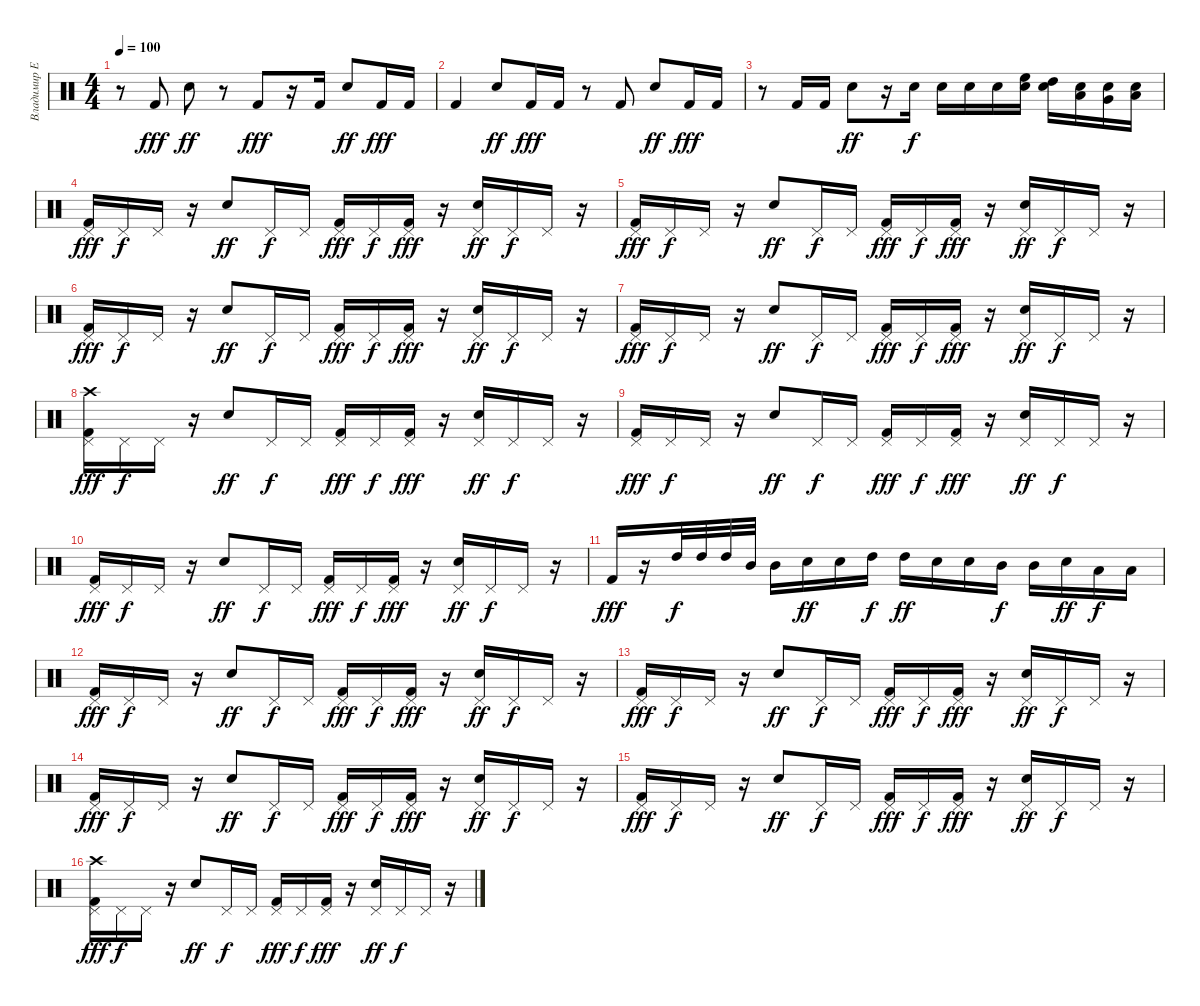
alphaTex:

\track ("Владимир Ермаков" "Владимир Е") {instrument percussion}
\staff {score}
\articulation defaults
\ts (4 4)
\tempo 100
\clef neutral
\ks c
r.8{dy ff} "Kick (hit) 2".8{dy fff} "Electric Snare (hit)".8{dy ff} r.8 "Kick (hit) 2".8{dy fff} r.16 "Kick (hit) 2".16 "Electric Snare (hit)".8{dy ff} "Kick (hit) 2".16{dy fff} "Kick (hit) 2".16 |
"Kick (hit) 2".4 "Electric Snare (hit)".8{dy ff} "Kick (hit) 2".16{dy fff} "Kick (hit) 2".16 r.8 "Kick (hit) 2".8 "Electric Snare (hit)".8{dy ff} "Kick (hit) 2".16{dy fff} "Kick (hit) 2".16 |
r.8 "Kick (hit) 2".16 "Kick (hit) 2".16 "Electric Snare (hit)".8{dy ff} r.16 "Electric Snare (hit)".16{dy f} "Electric Snare (hit)".16 "Electric Snare (hit)".16 "Electric Snare (hit)".16 ("High Floor Tom (hit)" "Electric Snare (hit)").16 ("High Tom (hit)" "Electric Snare (hit)").16 ("Low Tom (hit)" "Electric Snare (hit)").16 ("Very Low Tom (hit)" "Electric Snare (hit)").16 ("Low Floor Tom (hit)" "Electric Snare (hit)").16 |
("Kick (hit) 2" "Pedal Hi-Hat (hit)").16{dy fff} "Pedal Hi-Hat (hit)".16{dy f} "Pedal Hi-Hat (hit)".16 r.16 "Electric Snare (hit)".8{dy ff} "Pedal Hi-Hat (hit)".16{dy f} "Pedal Hi-Hat (hit)".16 ("Kick (hit) 2" "Pedal Hi-Hat (hit)").16{dy fff} "Pedal Hi-Hat (hit)".16{dy f} ("Kick (hit) 2" "Pedal Hi-Hat (hit)").16{dy fff} r.16 ("Electric Snare (hit)" "Pedal Hi-Hat (hit)").16{dy ff} "Pedal Hi-Hat (hit)".16{dy f} "Pedal Hi-Hat (hit)".16 r.16 |
("Kick (hit) 2" "Pedal Hi-Hat (hit)").16{dy fff} "Pedal Hi-Hat (hit)".16{dy f} "Pedal Hi-Hat (hit)".16 r.16 "Electric Snare (hit)".8{dy ff} "Pedal Hi-Hat (hit)".16{dy f} "Pedal Hi-Hat (hit)".16 ("Kick (hit) 2" "Pedal Hi-Hat (hit)").16{dy fff} "Pedal Hi-Hat (hit)".16{dy f} ("Kick (hit) 2" "Pedal Hi-Hat (hit)").16{dy fff} r.16 ("Electric Snare (hit)" "Pedal Hi-Hat (hit)").16{dy ff} "Pedal Hi-Hat (hit)".16{dy f} "Pedal Hi-Hat (hit)".16 r.16 |
("Kick (hit) 2" "Pedal Hi-Hat (hit)").16{dy fff} "Pedal Hi-Hat (hit)".16{dy f} "Pedal Hi-Hat (hit)".16 r.16 "Electric Snare (hit)".8{dy ff} "Pedal Hi-Hat (hit)".16{dy f} "Pedal Hi-Hat (hit)".16 ("Kick (hit) 2" "Pedal Hi-Hat (hit)").16{dy fff} "Pedal Hi-Hat (hit)".16{dy f} ("Kick (hit) 2" "Pedal Hi-Hat (hit)").16{dy fff} r.16 ("Electric Snare (hit)" "Pedal Hi-Hat (hit)").16{dy ff} "Pedal Hi-Hat (hit)".16{dy f} "Pedal Hi-Hat (hit)".16 r.16 |
("Kick (hit) 2" "Pedal Hi-Hat (hit)").16{dy fff} "Pedal Hi-Hat (hit)".16{dy f} "Pedal Hi-Hat (hit)".16 r.16 "Electric Snare (hit)".8{dy ff} "Pedal Hi-Hat (hit)".16{dy f} "Pedal Hi-Hat (hit)".16 ("Kick (hit) 2" "Pedal Hi-Hat (hit)").16{dy fff} "Pedal Hi-Hat (hit)".16{dy f} ("Kick (hit) 2" "Pedal Hi-Hat (hit)").16{dy fff} r.16 ("Electric Snare (hit)" "Pedal Hi-Hat (hit)").16{dy ff} "Pedal Hi-Hat (hit)".16{dy f} "Pedal Hi-Hat (hit)".16 r.16 |
("Crash high (hit)" "Kick (hit) 2" "Pedal Hi-Hat (hit)").16{dy fff} "Pedal Hi-Hat (hit)".16{dy f} "Pedal Hi-Hat (hit)".16 r.16 "Electric Snare (hit)".8{dy ff} "Pedal Hi-Hat (hit)".16{dy f} "Pedal Hi-Hat (hit)".16 ("Kick (hit) 2" "Pedal Hi-Hat (hit)").16{dy fff} "Pedal Hi-Hat (hit)".16{dy f} ("Kick (hit) 2" "Pedal Hi-Hat (hit)").16{dy fff} r.16 ("Electric Snare (hit)" "Pedal Hi-Hat (hit)").16{dy ff} "Pedal Hi-Hat (hit)".16{dy f} "Pedal Hi-Hat (hit)".16 r.16 |
("Kick (hit) 2" "Pedal Hi-Hat (hit)").16{dy fff} "Pedal Hi-Hat (hit)".16{dy f} "Pedal Hi-Hat (hit)".16 r.16 "Electric Snare (hit)".8{dy ff} "Pedal Hi-Hat (hit)".16{dy f} "Pedal Hi-Hat (hit)".16 ("Kick (hit) 2" "Pedal Hi-Hat (hit)").16{dy fff} "Pedal Hi-Hat (hit)".16{dy f} ("Kick (hit) 2" "Pedal Hi-Hat (hit)").16{dy fff} r.16 ("Electric Snare (hit)" "Pedal Hi-Hat (hit)").16{dy ff} "Pedal Hi-Hat (hit)".16{dy f} "Pedal Hi-Hat (hit)".16 r.16 |
("Kick (hit) 2" "Pedal Hi-Hat (hit)").16{dy fff} "Pedal Hi-Hat (hit)".16{dy f} "Pedal Hi-Hat (hit)".16 r.16 "Electric Snare (hit)".8{dy ff} "Pedal Hi-Hat (hit)".16{dy f} "Pedal Hi-Hat (hit)".16 ("Kick (hit) 2" "Pedal Hi-Hat (hit)").16{dy fff} "Pedal Hi-Hat (hit)".16{dy f} ("Kick (hit) 2" "Pedal Hi-Hat (hit)").16{dy fff} r.16 ("Electric Snare (hit)" "Pedal Hi-Hat (hit)").16{dy ff} "Pedal Hi-Hat (hit)".16{dy f} "Pedal Hi-Hat (hit)".16 r.16 |
"Kick (hit) 2".16{dy fff} r.16 "High Tom (hit)".32{dy f} "High Tom (hit)".32 "High Tom (hit)".32 "Mid Tom (hit)".32 "Mid Tom (hit)".16 "Electric Snare (hit)".16{dy ff} "Electric Snare (hit)".16 "High Tom (hit)".16{dy f} "High Tom (hit)".16{dy ff} "Electric Snare (hit)".16 "Electric Snare (hit)".16 "Mid Tom (hit)".16{dy f} "Mid Tom (hit)".16 "Electric Snare (hit)".16{dy ff} "Low Tom (hit)".16{dy f} "Low Tom (hit)".16 |
("Kick (hit) 2" "Pedal Hi-Hat (hit)").16{dy fff} "Pedal Hi-Hat (hit)".16{dy f} "Pedal Hi-Hat (hit)".16 r.16 "Electric Snare (hit)".8{dy ff} "Pedal Hi-Hat (hit)".16{dy f} "Pedal Hi-Hat (hit)".16 ("Kick (hit) 2" "Pedal Hi-Hat (hit)").16{dy fff} "Pedal Hi-Hat (hit)".16{dy f} ("Kick (hit) 2" "Pedal Hi-Hat (hit)").16{dy fff} r.16 ("Electric Snare (hit)" "Pedal Hi-Hat (hit)").16{dy ff} "Pedal Hi-Hat (hit)".16{dy f} "Pedal Hi-Hat (hit)".16 r.16 |
("Kick (hit) 2" "Pedal Hi-Hat (hit)").16{dy fff} "Pedal Hi-Hat (hit)".16{dy f} "Pedal Hi-Hat (hit)".16 r.16 "Electric Snare (hit)".8{dy ff} "Pedal Hi-Hat (hit)".16{dy f} "Pedal Hi-Hat (hit)".16 ("Kick (hit) 2" "Pedal Hi-Hat (hit)").16{dy fff} "Pedal Hi-Hat (hit)".16{dy f} ("Kick (hit) 2" "Pedal Hi-Hat (hit)").16{dy fff} r.16 ("Electric Snare (hit)" "Pedal Hi-Hat (hit)").16{dy ff} "Pedal Hi-Hat (hit)".16{dy f} "Pedal Hi-Hat (hit)".16 r.16 |
("Kick (hit) 2" "Pedal Hi-Hat (hit)").16{dy fff} "Pedal Hi-Hat (hit)".16{dy f} "Pedal Hi-Hat (hit)".16 r.16 "Electric Snare (hit)".8{dy ff} "Pedal Hi-Hat (hit)".16{dy f} "Pedal Hi-Hat (hit)".16 ("Kick (hit) 2" "Pedal Hi-Hat (hit)").16{dy fff} "Pedal Hi-Hat (hit)".16{dy f} ("Kick (hit) 2" "Pedal Hi-Hat (hit)").16{dy fff} r.16 ("Electric Snare (hit)" "Pedal Hi-Hat (hit)").16{dy ff} "Pedal Hi-Hat (hit)".16{dy f} "Pedal Hi-Hat (hit)".16 r.16 |
("Kick (hit) 2" "Pedal Hi-Hat (hit)").16{dy fff} "Pedal Hi-Hat (hit)".16{dy f} "Pedal Hi-Hat (hit)".16 r.16 "Electric Snare (hit)".8{dy ff} "Pedal Hi-Hat (hit)".16{dy f} "Pedal Hi-Hat (hit)".16 ("Kick (hit) 2" "Pedal Hi-Hat (hit)").16{dy fff} "Pedal Hi-Hat (hit)".16{dy f} ("Kick (hit) 2" "Pedal Hi-Hat (hit)").16{dy fff} r.16 ("Electric Snare (hit)" "Pedal Hi-Hat (hit)").16{dy ff} "Pedal Hi-Hat (hit)".16{dy f} "Pedal Hi-Hat (hit)".16 r.16 |
("Crash high (hit)" "Kick (hit) 2" "Pedal Hi-Hat (hit)").16{dy fff} "Pedal Hi-Hat (hit)".16{dy f} "Pedal Hi-Hat (hit)".16 r.16 "Electric Snare (hit)".8{dy ff} "Pedal Hi-Hat (hit)".16{dy f} "Pedal Hi-Hat (hit)".16 ("Kick (hit) 2" "Pedal Hi-Hat (hit)").16{dy fff} "Pedal Hi-Hat (hit)".16{dy f} ("Kick (hit) 2" "Pedal Hi-Hat (hit)").16{dy fff} r.16 ("Electric Snare (hit)" "Pedal Hi-Hat (hit)").16{dy ff} "Pedal Hi-Hat (hit)".16{dy f} "Pedal Hi-Hat (hit)".16 r.16
